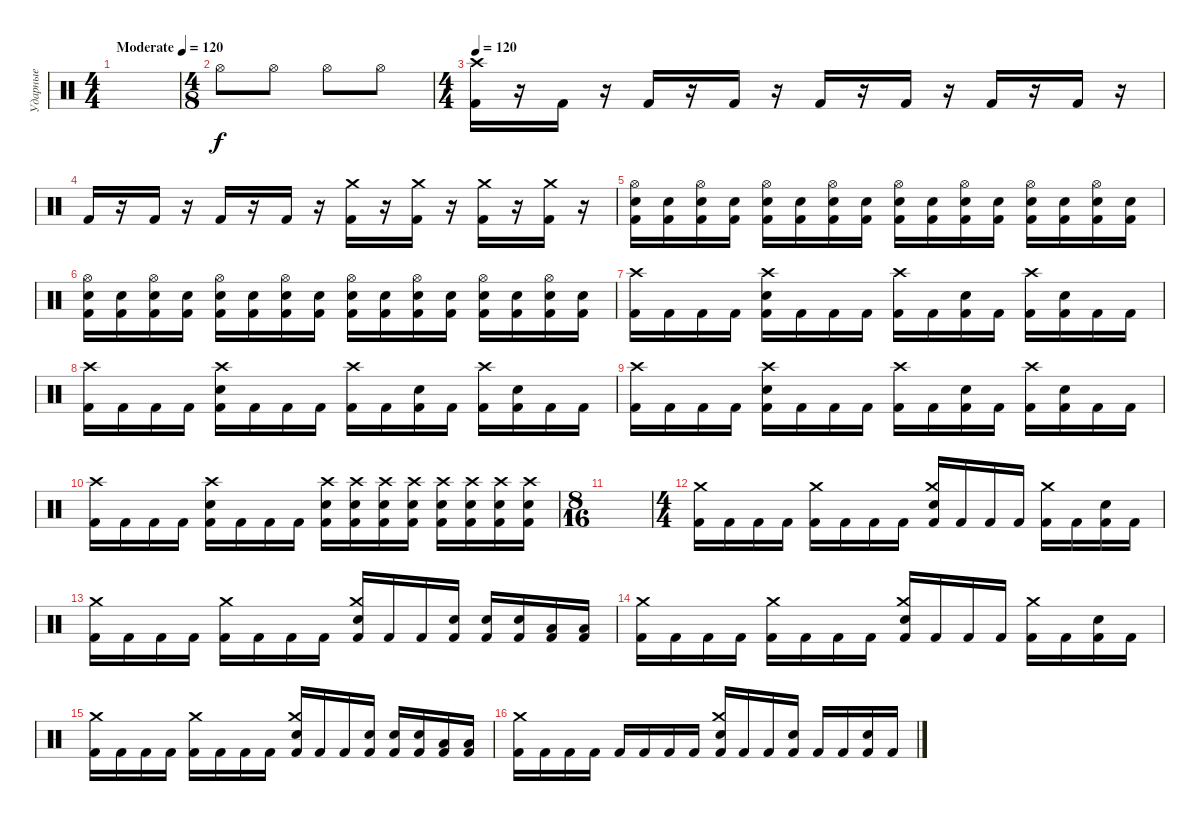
\track ("Ударные" "Ударные") {instrument percussion}
\staff {score}
\articulation defaults
\ts (4 4)
\tempo (120 "Moderate")
\clef neutral
\ks c
|
\ts (4 8)
"Hi-Hat (open)".8 "Hi-Hat (open)".8 "Hi-Hat (open)".8 "Hi-Hat (open)".8 |
\ts (4 4)
\tempo 120
("Crash high (hit)" "Kick (hit) 2").16 r.16 "Kick (hit) 2".16 r.16 "Kick (hit) 2".16 r.16 "Kick (hit) 2".16 r.16 "Kick (hit) 2".16 r.16 "Kick (hit) 2".16 r.16 "Kick (hit) 2".16 r.16 "Kick (hit) 2".16 r.16 |
"Kick (hit) 2".16 r.16 "Kick (hit) 2".16 r.16 "Kick (hit) 2".16 r.16 "Kick (hit) 2".16 r.16 ("Crash medium (hit)" "Kick (hit) 2").16 r.16 ("Crash medium (hit)" "Kick (hit) 2").16 r.16 ("Crash medium (hit)" "Kick (hit) 2").16 r.16 ("Crash medium (hit)" "Kick (hit) 2").16 r.16 |
("Hi-Hat (open)" "Electric Snare (hit)" "Kick (hit) 2").16 ("Electric Snare (hit)" "Kick (hit) 2").16 ("Hi-Hat (open)" "Electric Snare (hit)" "Kick (hit) 2").16 ("Electric Snare (hit)" "Kick (hit) 2").16 ("Hi-Hat (open)" "Electric Snare (hit)" "Kick (hit) 2").16 ("Electric Snare (hit)" "Kick (hit) 2").16 ("Hi-Hat (open)" "Electric Snare (hit)" "Kick (hit) 2").16 ("Electric Snare (hit)" "Kick (hit) 2").16 ("Hi-Hat (open)" "Electric Snare (hit)" "Kick (hit) 2").16 ("Electric Snare (hit)" "Kick (hit) 2").16 ("Hi-Hat (open)" "Electric Snare (hit)" "Kick (hit) 2").16 ("Electric Snare (hit)" "Kick (hit) 2").16 ("Hi-Hat (open)" "Electric Snare (hit)" "Kick (hit) 2").16 ("Electric Snare (hit)" "Kick (hit) 2").16 ("Hi-Hat (open)" "Electric Snare (hit)" "Kick (hit) 2").16 ("Electric Snare (hit)" "Kick (hit) 2").16 |
("Hi-Hat (open)" "Electric Snare (hit)" "Kick (hit) 2").16 ("Electric Snare (hit)" "Kick (hit) 2").16 ("Hi-Hat (open)" "Electric Snare (hit)" "Kick (hit) 2").16 ("Electric Snare (hit)" "Kick (hit) 2").16 ("Hi-Hat (open)" "Electric Snare (hit)" "Kick (hit) 2").16 ("Electric Snare (hit)" "Kick (hit) 2").16 ("Hi-Hat (open)" "Electric Snare (hit)" "Kick (hit) 2").16 ("Electric Snare (hit)" "Kick (hit) 2").16 ("Hi-Hat (open)" "Electric Snare (hit)" "Kick (hit) 2").16 ("Electric Snare (hit)" "Kick (hit) 2").16 ("Hi-Hat (open)" "Electric Snare (hit)" "Kick (hit) 2").16 ("Electric Snare (hit)" "Kick (hit) 2").16 ("Hi-Hat (open)" "Electric Snare (hit)" "Kick (hit) 2").16 ("Electric Snare (hit)" "Kick (hit) 2").16 ("Hi-Hat (open)" "Electric Snare (hit)" "Kick (hit) 2").16 ("Electric Snare (hit)" "Kick (hit) 2").16 |
("Crash high (hit)" "Kick (hit) 2").16 "Kick (hit) 2".16 "Kick (hit) 2".16 "Kick (hit) 2".16 ("Crash high (hit)" "Electric Snare (hit)" "Kick (hit) 2").16 "Kick (hit) 2".16 "Kick (hit) 2".16 "Kick (hit) 2".16 ("Crash high (hit)" "Kick (hit) 2").16 "Kick (hit) 2".16 ("Electric Snare (hit)" "Kick (hit) 2").16 "Kick (hit) 2".16 ("Crash high (hit)" "Kick (hit) 2").16 ("Electric Snare (hit)" "Kick (hit) 2").16 "Kick (hit) 2".16 "Kick (hit) 2".16 |
("Crash high (hit)" "Kick (hit) 2").16 "Kick (hit) 2".16 "Kick (hit) 2".16 "Kick (hit) 2".16 ("Crash high (hit)" "Electric Snare (hit)" "Kick (hit) 2").16 "Kick (hit) 2".16 "Kick (hit) 2".16 "Kick (hit) 2".16 ("Crash high (hit)" "Kick (hit) 2").16 "Kick (hit) 2".16 ("Electric Snare (hit)" "Kick (hit) 2").16 "Kick (hit) 2".16 ("Crash high (hit)" "Kick (hit) 2").16 ("Electric Snare (hit)" "Kick (hit) 2").16 "Kick (hit) 2".16 "Kick (hit) 2".16 |
("Crash high (hit)" "Kick (hit) 2").16 "Kick (hit) 2".16 "Kick (hit) 2".16 "Kick (hit) 2".16 ("Crash high (hit)" "Electric Snare (hit)" "Kick (hit) 2").16 "Kick (hit) 2".16 "Kick (hit) 2".16 "Kick (hit) 2".16 ("Crash high (hit)" "Kick (hit) 2").16 "Kick (hit) 2".16 ("Electric Snare (hit)" "Kick (hit) 2").16 "Kick (hit) 2".16 ("Crash high (hit)" "Kick (hit) 2").16 ("Electric Snare (hit)" "Kick (hit) 2").16 "Kick (hit) 2".16 "Kick (hit) 2".16 |
("Crash high (hit)" "Kick (hit) 2").16 "Kick (hit) 2".16 "Kick (hit) 2".16 "Kick (hit) 2".16 ("Crash high (hit)" "Electric Snare (hit)" "Kick (hit) 2").16 "Kick (hit) 2".16 "Kick (hit) 2".16 "Kick (hit) 2".16 ("Crash high (hit)" "Electric Snare (hit)" "Kick (hit) 2").16 ("Crash high (hit)" "Electric Snare (hit)" "Kick (hit) 2").16 ("Crash high (hit)" "Electric Snare (hit)" "Kick (hit) 2").16 ("Crash high (hit)" "Electric Snare (hit)" "Kick (hit) 2").16 ("Crash high (hit)" "Electric Snare (hit)" "Kick (hit) 2").16 ("Crash high (hit)" "Electric Snare (hit)" "Kick (hit) 2").16 ("Crash high (hit)" "Electric Snare (hit)" "Kick (hit) 2").16 ("Crash high (hit)" "Electric Snare (hit)" "Kick (hit) 2").16 |
\ts (8 16)
|
\ts (4 4)
("Crash medium (hit)" "Kick (hit) 2").16 "Kick (hit) 2".16 "Kick (hit) 2".16 "Kick (hit) 2".16 ("Crash medium (hit)" "Kick (hit) 2").16 "Kick (hit) 2".16 "Kick (hit) 2".16 "Kick (hit) 2".16 ("Crash medium (hit)" "Electric Snare (hit)" "Kick (hit) 2").16 "Kick (hit) 2".16 "Kick (hit) 2".16 "Kick (hit) 2".16 ("Crash medium (hit)" "Kick (hit) 2").16 "Kick (hit) 2".16 ("Electric Snare (hit)" "Kick (hit) 2").16 "Kick (hit) 2".16 |
("Crash medium (hit)" "Kick (hit) 2").16 "Kick (hit) 2".16 "Kick (hit) 2".16 "Kick (hit) 2".16 ("Crash medium (hit)" "Kick (hit) 2").16 "Kick (hit) 2".16 "Kick (hit) 2".16 "Kick (hit) 2".16 ("Crash medium (hit)" "Electric Snare (hit)" "Kick (hit) 2").16 "Kick (hit) 2".16 "Kick (hit) 2".16 ("Electric Snare (hit)" "Kick (hit) 2").16 ("Electric Snare (hit)" "Kick (hit) 2").16 ("Electric Snare (hit)" "Kick (hit) 2").16 ("Low Tom (hit)" "Kick (hit) 2").16 ("Low Tom (hit)" "Kick (hit) 2").16 |
("Crash medium (hit)" "Kick (hit) 2").16 "Kick (hit) 2".16 "Kick (hit) 2".16 "Kick (hit) 2".16 ("Crash medium (hit)" "Kick (hit) 2").16 "Kick (hit) 2".16 "Kick (hit) 2".16 "Kick (hit) 2".16 ("Crash medium (hit)" "Electric Snare (hit)" "Kick (hit) 2").16 "Kick (hit) 2".16 "Kick (hit) 2".16 "Kick (hit) 2".16 ("Crash medium (hit)" "Kick (hit) 2").16 "Kick (hit) 2".16 ("Electric Snare (hit)" "Kick (hit) 2").16 "Kick (hit) 2".16 |
("Crash medium (hit)" "Kick (hit) 2").16 "Kick (hit) 2".16 "Kick (hit) 2".16 "Kick (hit) 2".16 ("Crash medium (hit)" "Kick (hit) 2").16 "Kick (hit) 2".16 "Kick (hit) 2".16 "Kick (hit) 2".16 ("Crash medium (hit)" "Electric Snare (hit)" "Kick (hit) 2").16 "Kick (hit) 2".16 "Kick (hit) 2".16 ("Electric Snare (hit)" "Kick (hit) 2").16 ("Electric Snare (hit)" "Kick (hit) 2").16 ("Electric Snare (hit)" "Kick (hit) 2").16 ("Low Tom (hit)" "Kick (hit) 2").16 ("Low Tom (hit)" "Kick (hit) 2").16 |
("Crash medium (hit)" "Kick (hit) 2").16 "Kick (hit) 2".16 "Kick (hit) 2".16 "Kick (hit) 2".16 "Kick (hit) 2".16 "Kick (hit) 2".16 "Kick (hit) 2".16 "Kick (hit) 2".16 ("Crash medium (hit)" "Electric Snare (hit)" "Kick (hit) 2").16 "Kick (hit) 2".16 "Kick (hit) 2".16 ("Electric Snare (hit)" "Kick (hit) 2").16 "Kick (hit) 2".16 "Kick (hit) 2".16 ("Electric Snare (hit)" "Kick (hit) 2").16 "Kick (hit) 2".16
